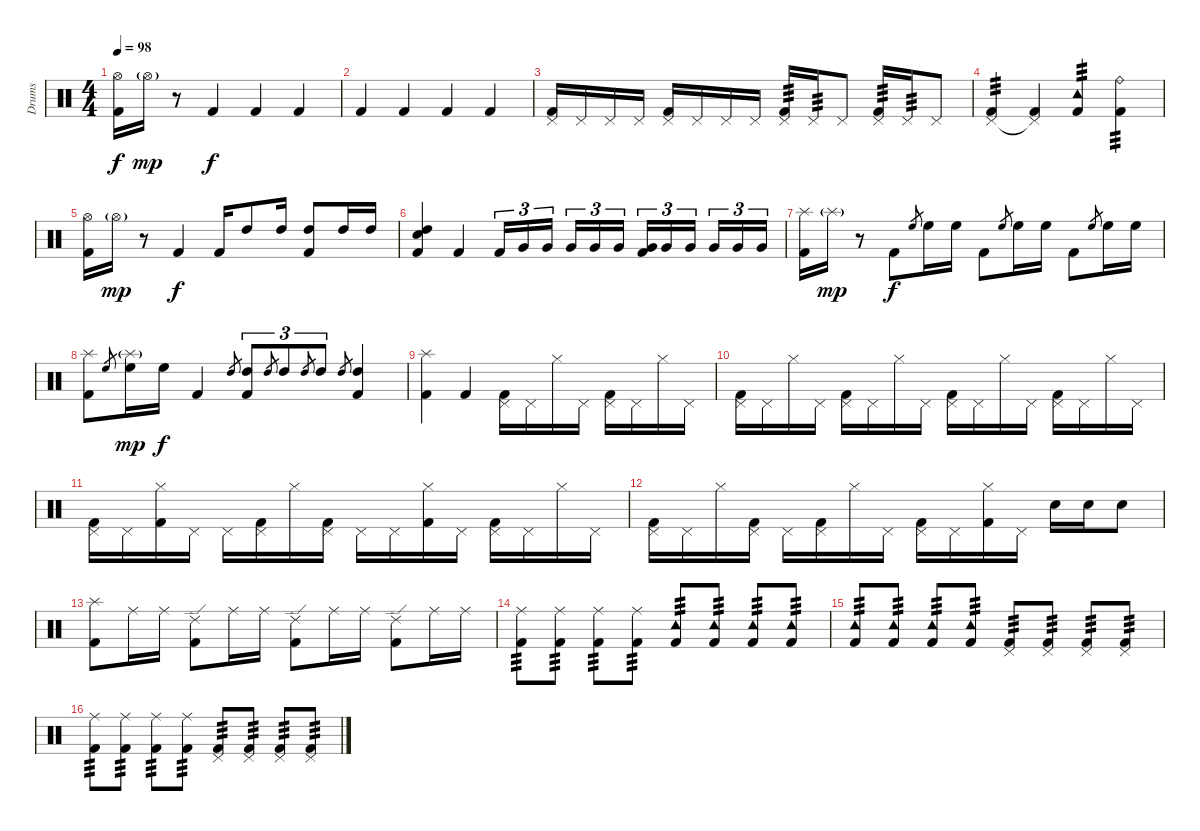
\track ("Drums" "Drums") {instrument percussion}
\staff {score}
\articulation defaults
\ts (4 4)
\tempo 98
\clef neutral
\ks c
("Hi-Hat (open)" "Kick (hit) 2").16{dy f} "Hi-Hat (open)"{g}.16{dy mp} r.8 "Kick (hit) 2".4{dy f} "Kick (hit) 2".4 "Kick (hit) 2".4 |
"Kick (hit) 2".4 "Kick (hit) 2".4 "Kick (hit) 2".4 "Kick (hit) 2".4 |
("Pedal Hi-Hat (hit)" "Kick (hit) 2").16 "Pedal Hi-Hat (hit)".16 "Pedal Hi-Hat (hit)".16 "Pedal Hi-Hat (hit)".16 ("Pedal Hi-Hat (hit)" "Kick (hit) 2").16 "Pedal Hi-Hat (hit)".16 "Pedal Hi-Hat (hit)".16 "Pedal Hi-Hat (hit)".16 ("Pedal Hi-Hat (hit)" "Kick (hit) 2").16{tp 3} "Pedal Hi-Hat (hit)".16{tp 3} "Pedal Hi-Hat (hit)".8 ("Pedal Hi-Hat (hit)" "Kick (hit) 2").16{tp 3} "Pedal Hi-Hat (hit)".16{tp 3} "Pedal Hi-Hat (hit)".8 |
("Pedal Hi-Hat (hit)" "Kick (hit) 2").4{tp 3} ("Pedal Hi-Hat (hit)"{t} "Kick (hit) 2").4 ("Tambourine (hit)" "Kick (hit) 2").4{tp 3} ("Ride (bell)" "Kick (hit) 2").4{tp 3} |
("Hi-Hat (open)" "Kick (hit) 2").16 "Hi-Hat (open)"{g}.16{dy mp} r.8 "Kick (hit) 2".4{dy f} "Kick (hit) 2".16 "High Tom (hit)".8 "High Tom (hit)".16 ("High Tom (hit)" "Kick (hit) 2").8 "High Tom (hit)".16 "High Tom (hit)".16 |
("High Tom (hit)" "Snare (hit) 2" "Kick (hit) 2").4 "Kick (hit) 2".4 "Kick (hit) 2".16{tu (3 2)} "Very Low Tom (hit)".16{tu (3 2)} "Very Low Tom (hit)".16{tu (3 2) beam splitsecondary} "Very Low Tom (hit)".16{tu (3 2)} "Very Low Tom (hit)".16{tu (3 2)} "Very Low Tom (hit)".16{tu (3 2)} ("Very Low Tom (hit)" "Kick (hit) 2").16{tu (3 2)} "Very Low Tom (hit)".16{tu (3 2)} "Very Low Tom (hit)".16{tu (3 2) beam splitsecondary} "Very Low Tom (hit)".16{tu (3 2)} "Very Low Tom (hit)".16{tu (3 2)} "Very Low Tom (hit)".16{tu (3 2)} |
("Splash (hit)" "Kick (hit) 2").16 "Splash (hit)"{g}.16{dy mp} r.8 "Kick (hit) 2".8{dy f} "High Floor Tom (hit)".8{gr} "High Floor Tom (hit)".16 "High Floor Tom (hit)".16 "Kick (hit) 2".8 "High Floor Tom (hit)".8{gr} "High Floor Tom (hit)".16 "High Floor Tom (hit)".16 "Kick (hit) 2".8 "High Floor Tom (hit)".8{gr} "High Floor Tom (hit)".16 "High Floor Tom (hit)".16 |
("Splash (hit)" "Kick (hit) 2").8 "High Floor Tom (hit)".8{gr} ("Splash (hit)"{g} "High Floor Tom (hit)").16{dy mp} "High Floor Tom (hit)".16{dy f} "Kick (hit) 2".4 "High Tom (hit)".8{gr} ("High Tom (hit)" "Kick (hit) 2").8{tu (3 2)} "High Tom (hit)".8{gr} "High Tom (hit)".8{tu (3 2)} "High Tom (hit)".8{gr} "High Tom (hit)".8{tu (3 2)} "High Tom (hit)".8{gr} ("High Tom (hit)" "Kick (hit) 2").4 |
("Splash (hit)" "Kick (hit) 2").4 "Kick (hit) 2".4 ("Pedal Hi-Hat (hit)" "Kick (hit) 2").16 "Pedal Hi-Hat (hit)".16 "Hi-Hat (closed)".16 "Pedal Hi-Hat (hit)".16 ("Pedal Hi-Hat (hit)" "Kick (hit) 2").16 "Pedal Hi-Hat (hit)".16 "Hi-Hat (closed)".16 "Pedal Hi-Hat (hit)".16 |
("Pedal Hi-Hat (hit)" "Kick (hit) 2").16 "Pedal Hi-Hat (hit)".16 "Hi-Hat (closed)".16 "Pedal Hi-Hat (hit)".16 ("Pedal Hi-Hat (hit)" "Kick (hit) 2").16 "Pedal Hi-Hat (hit)".16 "Hi-Hat (closed)".16 "Pedal Hi-Hat (hit)".16 ("Pedal Hi-Hat (hit)" "Kick (hit) 2").16 "Pedal Hi-Hat (hit)".16 "Hi-Hat (closed)".16 "Pedal Hi-Hat (hit)".16 ("Pedal Hi-Hat (hit)" "Kick (hit) 2").16 "Pedal Hi-Hat (hit)".16 "Hi-Hat (closed)".16 "Pedal Hi-Hat (hit)".16 |
("Pedal Hi-Hat (hit)" "Kick (hit) 2").16 "Pedal Hi-Hat (hit)".16 ("Hi-Hat (closed)" "Kick (hit) 2").16 "Pedal Hi-Hat (hit)".16 "Pedal Hi-Hat (hit)".16 ("Pedal Hi-Hat (hit)" "Kick (hit) 2").16 "Hi-Hat (closed)".16 ("Pedal Hi-Hat (hit)" "Kick (hit) 2").16 "Pedal Hi-Hat (hit)".16 "Pedal Hi-Hat (hit)".16 ("Hi-Hat (closed)" "Kick (hit) 2").16 "Pedal Hi-Hat (hit)".16 ("Pedal Hi-Hat (hit)" "Kick (hit) 2").16 "Pedal Hi-Hat (hit)".16 "Hi-Hat (closed)".16 "Pedal Hi-Hat (hit)".16 |
("Pedal Hi-Hat (hit)" "Kick (hit) 2").16 "Pedal Hi-Hat (hit)".16 "Hi-Hat (closed)".16 ("Pedal Hi-Hat (hit)" "Kick (hit) 2").16 "Pedal Hi-Hat (hit)".16 ("Pedal Hi-Hat (hit)" "Kick (hit) 2").16 "Hi-Hat (closed)".16 "Pedal Hi-Hat (hit)".16 ("Pedal Hi-Hat (hit)" "Kick (hit) 2").16 "Pedal Hi-Hat (hit)".16 ("Hi-Hat (closed)" "Kick (hit) 2").16 "Pedal Hi-Hat (hit)".16 "Snare (hit) 2".16 "Snare (hit) 2".16 "Snare (hit) 2".8 |
("Splash (hit)" "Kick (hit) 2").8 "Ride (middle)".16 "Ride (middle)".16 ("Ride (edge) 2" "Kick (hit) 2").8 "Ride (middle)".16 "Ride (middle)".16 ("Ride (edge) 2" "Kick (hit) 2").8 "Ride (middle)".16 "Ride (middle)".16 ("Ride (edge) 2" "Kick (hit) 2").8 "Ride (middle)".16 "Ride (middle)".16 |
("Ride (middle)" "Kick (hit) 2").8{tp 3} ("Ride (middle)" "Kick (hit) 2").8{tp 3} ("Ride (middle)" "Kick (hit) 2").8{tp 3} ("Ride (middle)" "Kick (hit) 2").8{tp 3} ("Tambourine (hit)" "Kick (hit) 2").8{tp 3} ("Tambourine (hit)" "Kick (hit) 2").8{tp 3} ("Tambourine (hit)" "Kick (hit) 2").8{tp 3} ("Tambourine (hit)" "Kick (hit) 2").8{tp 3} |
("Tambourine (hit)" "Kick (hit) 2").8{tp 3} ("Tambourine (hit)" "Kick (hit) 2").8{tp 3} ("Tambourine (hit)" "Kick (hit) 2").8{tp 3} ("Tambourine (hit)" "Kick (hit) 2").8{tp 3} ("Pedal Hi-Hat (hit)" "Kick (hit) 2").8{tp 3} ("Pedal Hi-Hat (hit)" "Kick (hit) 2").8{tp 3} ("Pedal Hi-Hat (hit)" "Kick (hit) 2").8{tp 3} ("Pedal Hi-Hat (hit)" "Kick (hit) 2").8{tp 3} |
("Ride (middle)" "Kick (hit) 2").8{tp 3} ("Ride (middle)" "Kick (hit) 2").8{tp 3} ("Ride (middle)" "Kick (hit) 2").8{tp 3} ("Ride (middle)" "Kick (hit) 2").8{tp 3} ("Pedal Hi-Hat (hit)" "Kick (hit) 2").8{tp 3} ("Pedal Hi-Hat (hit)" "Kick (hit) 2").8{tp 3} ("Pedal Hi-Hat (hit)" "Kick (hit) 2").8{tp 3} ("Pedal Hi-Hat (hit)" "Kick (hit) 2").8{tp 3}
